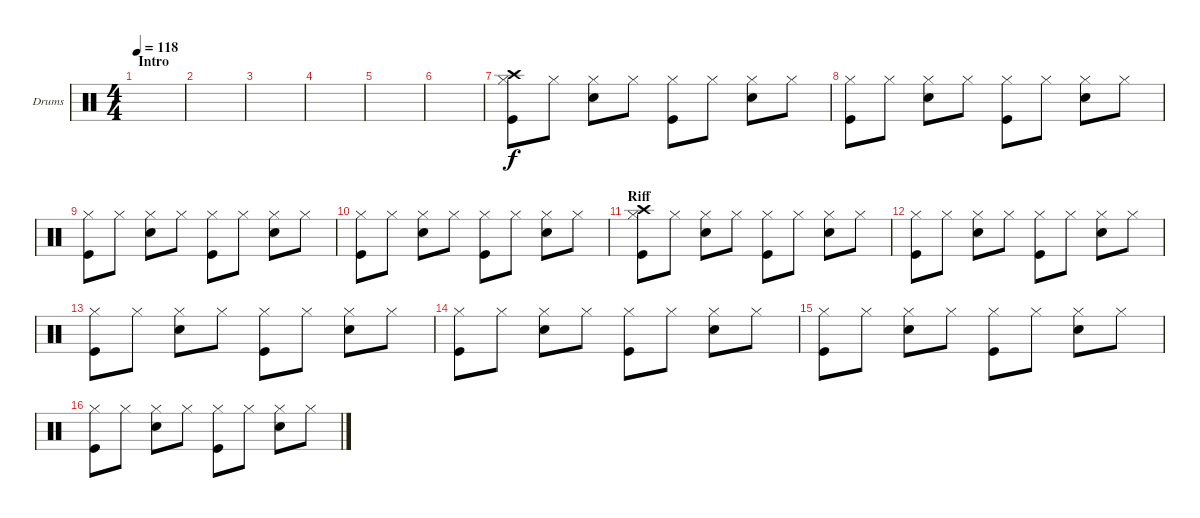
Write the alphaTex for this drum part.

\bracketExtendMode groupsimilarinstruments
\firstSystemTrackNameOrientation horizontal
\otherSystemsTrackNameOrientation horizontal
\track ("Drumkit" "Drums") {instrument percussion}
\staff {score}
\articulation defaults
\ts (4 4)
\section ("" "Intro")
\tempo 118
\clef neutral
\scale
0.474178
\ks c
|
\scale
0.262911 |
\scale
0.262911 |
\scale
0.333333 |
\scale
0.333333 |
\scale
0.333333 |
\scale
0.333333 ("Hi-Hat (closed)" "Kick (hit)" "Crash high (hit)").8 "Hi-Hat (closed)".8 ("Hi-Hat (closed)" "Snare (hit) 2").8 "Hi-Hat (closed)".8 ("Hi-Hat (closed)" "Kick (hit)").8 "Hi-Hat (closed)".8 ("Hi-Hat (closed)" "Snare (hit) 2").8 "Hi-Hat (closed)".8 |
\scale
0.333333 ("Hi-Hat (closed)" "Kick (hit)").8 "Hi-Hat (closed)".8 ("Hi-Hat (closed)" "Snare (hit) 2").8 "Hi-Hat (closed)".8 ("Hi-Hat (closed)" "Kick (hit)").8 "Hi-Hat (closed)".8 ("Hi-Hat (closed)" "Snare (hit) 2").8 "Hi-Hat (closed)".8 |
\scale
0.333333 ("Hi-Hat (closed)" "Kick (hit)").8 "Hi-Hat (closed)".8 ("Hi-Hat (closed)" "Snare (hit) 2").8 "Hi-Hat (closed)".8 ("Hi-Hat (closed)" "Kick (hit)").8 "Hi-Hat (closed)".8 ("Hi-Hat (closed)" "Snare (hit) 2").8 "Hi-Hat (closed)".8 |
\scale
0.333333 ("Hi-Hat (closed)" "Kick (hit)").8 "Hi-Hat (closed)".8 ("Hi-Hat (closed)" "Snare (hit) 2").8 "Hi-Hat (closed)".8 ("Hi-Hat (closed)" "Kick (hit)").8 "Hi-Hat (closed)".8 ("Hi-Hat (closed)" "Snare (hit) 2").8 "Hi-Hat (closed)".8 |
\section ("" "Riff")
\scale
0.333333 ("Hi-Hat (closed)" "Kick (hit)" "Crash high (hit)").8 "Hi-Hat (closed)".8 ("Hi-Hat (closed)" "Snare (hit) 2").8 "Hi-Hat (closed)".8 ("Hi-Hat (closed)" "Kick (hit)").8 "Hi-Hat (closed)".8 ("Hi-Hat (closed)" "Snare (hit) 2").8 "Hi-Hat (closed)".8 |
\scale
0.333333 ("Hi-Hat (closed)" "Kick (hit)").8 "Hi-Hat (closed)".8 ("Hi-Hat (closed)" "Snare (hit) 2").8 "Hi-Hat (closed)".8 ("Hi-Hat (closed)" "Kick (hit)").8 "Hi-Hat (closed)".8 ("Hi-Hat (closed)" "Snare (hit) 2").8 "Hi-Hat (closed)".8 |
\scale
0.333333 ("Hi-Hat (closed)" "Kick (hit)").8 "Hi-Hat (closed)".8 ("Hi-Hat (closed)" "Snare (hit) 2").8 "Hi-Hat (closed)".8 ("Hi-Hat (closed)" "Kick (hit)").8 "Hi-Hat (closed)".8 ("Hi-Hat (closed)" "Snare (hit) 2").8 "Hi-Hat (closed)".8 |
\scale
0.333333 ("Hi-Hat (closed)" "Kick (hit)").8 "Hi-Hat (closed)".8 ("Hi-Hat (closed)" "Snare (hit) 2").8 "Hi-Hat (closed)".8 ("Hi-Hat (closed)" "Kick (hit)").8 "Hi-Hat (closed)".8 ("Hi-Hat (closed)" "Snare (hit) 2").8 "Hi-Hat (closed)".8 |
\scale
0.333333 ("Hi-Hat (closed)" "Kick (hit)").8 "Hi-Hat (closed)".8 ("Hi-Hat (closed)" "Snare (hit) 2").8 "Hi-Hat (closed)".8 ("Hi-Hat (closed)" "Kick (hit)").8 "Hi-Hat (closed)".8 ("Hi-Hat (closed)" "Snare (hit) 2").8 "Hi-Hat (closed)".8 |
\scale
0.333333 ("Hi-Hat (closed)" "Kick (hit)").8 "Hi-Hat (closed)".8 ("Hi-Hat (closed)" "Snare (hit) 2").8 "Hi-Hat (closed)".8 ("Hi-Hat (closed)" "Kick (hit)").8 "Hi-Hat (closed)".8 ("Hi-Hat (closed)" "Snare (hit) 2").8 "Hi-Hat (closed)".8
